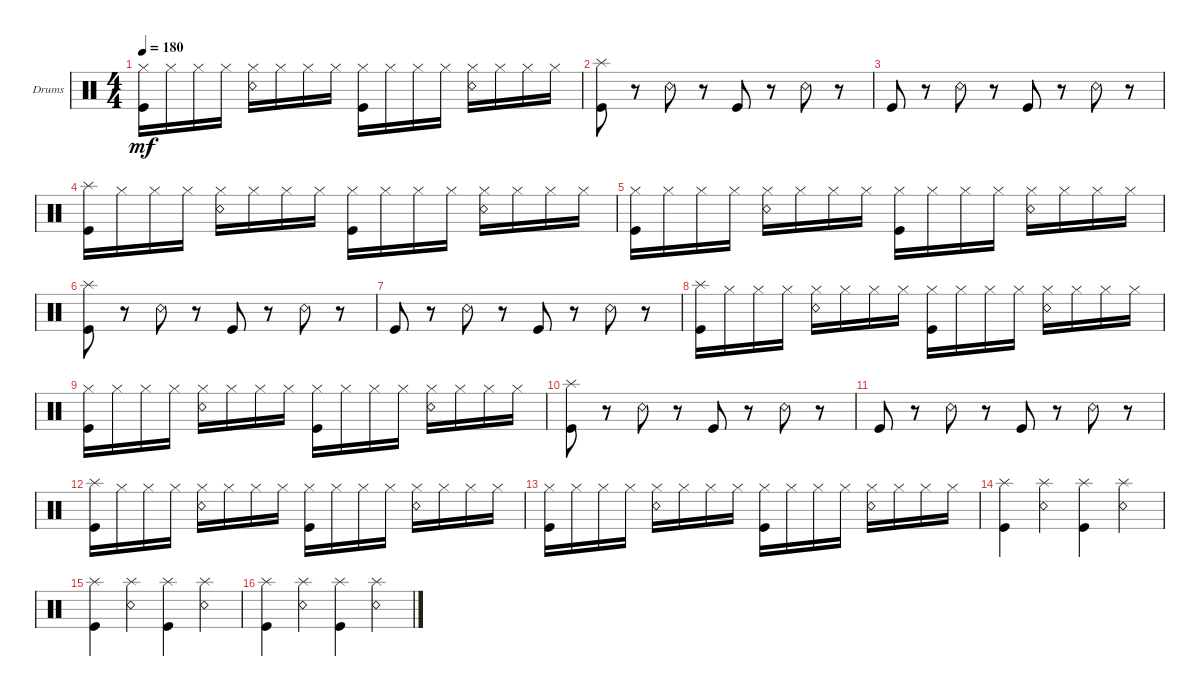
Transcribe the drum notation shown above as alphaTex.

\defaultSystemsLayout 4
\bracketExtendMode groupsimilarinstruments
\firstSystemTrackNameOrientation horizontal
\otherSystemsTrackNameOrientation horizontal
\track ("Drumkit" "Drums") {instrument percussion}
\staff {score}
\articulation defaults
\ts (4 4)
\tempo 180
\clef neutral
\scale
0.333333
\ks c
("Kick (hit)" "Hi-Hat (closed)").16{dy mf} "Hi-Hat (closed)".16 "Hi-Hat (closed)".16 "Hi-Hat (closed)".16 ("Hi-Hat (closed)" "Snare (rim shot)").16 "Hi-Hat (closed)".16 "Hi-Hat (closed)".16 "Hi-Hat (closed)".16 ("Hi-Hat (closed)" "Kick (hit)").16 "Hi-Hat (closed)".16 "Hi-Hat (closed)".16 "Hi-Hat (closed)".16 ("Hi-Hat (closed)" "Snare (rim shot)").16 "Hi-Hat (closed)".16 "Hi-Hat (closed)".16 "Hi-Hat (closed)".16 |
\scale
0.333333 ("Kick (hit)" "Splash (hit)").8 r.8 "Snare (rim shot)".8 r.8 "Kick (hit)".8 r.8 "Snare (rim shot)".8 r.8 |
\scale
0.333333 "Kick (hit)".8 r.8 "Snare (rim shot)".8 r.8 "Kick (hit)".8 r.8 "Snare (rim shot)".8 r.8 |
\scale
0.333333 ("Kick (hit)" "Splash (hit)").16 "Hi-Hat (closed)".16 "Hi-Hat (closed)".16 "Hi-Hat (closed)".16 ("Hi-Hat (closed)" "Snare (rim shot)").16 "Hi-Hat (closed)".16 "Hi-Hat (closed)".16 "Hi-Hat (closed)".16 ("Hi-Hat (closed)" "Kick (hit)").16 "Hi-Hat (closed)".16 "Hi-Hat (closed)".16 "Hi-Hat (closed)".16 ("Hi-Hat (closed)" "Snare (rim shot)").16 "Hi-Hat (closed)".16 "Hi-Hat (closed)".16 "Hi-Hat (closed)".16 |
\scale
0.333333 ("Kick (hit)" "Hi-Hat (closed)").16 "Hi-Hat (closed)".16 "Hi-Hat (closed)".16 "Hi-Hat (closed)".16 ("Hi-Hat (closed)" "Snare (rim shot)").16 "Hi-Hat (closed)".16 "Hi-Hat (closed)".16 "Hi-Hat (closed)".16 ("Hi-Hat (closed)" "Kick (hit)").16 "Hi-Hat (closed)".16 "Hi-Hat (closed)".16 "Hi-Hat (closed)".16 ("Hi-Hat (closed)" "Snare (rim shot)").16 "Hi-Hat (closed)".16 "Hi-Hat (closed)".16 "Hi-Hat (closed)".16 |
\scale
0.333333 ("Kick (hit)" "Splash (hit)").8 r.8 "Snare (rim shot)".8 r.8 "Kick (hit)".8 r.8 "Snare (rim shot)".8 r.8 |
\scale
0.333333 "Kick (hit)".8 r.8 "Snare (rim shot)".8 r.8 "Kick (hit)".8 r.8 "Snare (rim shot)".8 r.8 |
\scale
0.333333 ("Kick (hit)" "Splash (hit)").16 "Hi-Hat (closed)".16 "Hi-Hat (closed)".16 "Hi-Hat (closed)".16 ("Hi-Hat (closed)" "Snare (rim shot)").16 "Hi-Hat (closed)".16 "Hi-Hat (closed)".16 "Hi-Hat (closed)".16 ("Hi-Hat (closed)" "Kick (hit)").16 "Hi-Hat (closed)".16 "Hi-Hat (closed)".16 "Hi-Hat (closed)".16 ("Hi-Hat (closed)" "Snare (rim shot)").16 "Hi-Hat (closed)".16 "Hi-Hat (closed)".16 "Hi-Hat (closed)".16 |
\scale
0.333333 ("Kick (hit)" "Hi-Hat (closed)").16 "Hi-Hat (closed)".16 "Hi-Hat (closed)".16 "Hi-Hat (closed)".16 ("Hi-Hat (closed)" "Snare (rim shot)").16 "Hi-Hat (closed)".16 "Hi-Hat (closed)".16 "Hi-Hat (closed)".16 ("Hi-Hat (closed)" "Kick (hit)").16 "Hi-Hat (closed)".16 "Hi-Hat (closed)".16 "Hi-Hat (closed)".16 ("Hi-Hat (closed)" "Snare (rim shot)").16 "Hi-Hat (closed)".16 "Hi-Hat (closed)".16 "Hi-Hat (closed)".16 |
\scale
0.333333 ("Kick (hit)" "Splash (hit)").8 r.8 "Snare (rim shot)".8 r.8 "Kick (hit)".8 r.8 "Snare (rim shot)".8 r.8 |
\scale
0.333333 "Kick (hit)".8 r.8 "Snare (rim shot)".8 r.8 "Kick (hit)".8 r.8 "Snare (rim shot)".8 r.8 |
\scale
0.333333 ("Kick (hit)" "Splash (hit)").16 "Hi-Hat (closed)".16 "Hi-Hat (closed)".16 "Hi-Hat (closed)".16 ("Hi-Hat (closed)" "Snare (rim shot)").16 "Hi-Hat (closed)".16 "Hi-Hat (closed)".16 "Hi-Hat (closed)".16 ("Hi-Hat (closed)" "Kick (hit)").16 "Hi-Hat (closed)".16 "Hi-Hat (closed)".16 "Hi-Hat (closed)".16 ("Hi-Hat (closed)" "Snare (rim shot)").16 "Hi-Hat (closed)".16 "Hi-Hat (closed)".16 "Hi-Hat (closed)".16 |
\scale
0.333333 ("Kick (hit)" "Hi-Hat (closed)").16 "Hi-Hat (closed)".16 "Hi-Hat (closed)".16 "Hi-Hat (closed)".16 ("Hi-Hat (closed)" "Snare (rim shot)").16 "Hi-Hat (closed)".16 "Hi-Hat (closed)".16 "Hi-Hat (closed)".16 ("Hi-Hat (closed)" "Kick (hit)").16 "Hi-Hat (closed)".16 "Hi-Hat (closed)".16 "Hi-Hat (closed)".16 ("Hi-Hat (closed)" "Snare (rim shot)").16 "Hi-Hat (closed)".16 "Hi-Hat (closed)".16 "Hi-Hat (closed)".16 |
\scale
0.333333 ("Kick (hit)" "Splash (hit)").4 ("Snare (rim shot)" "Splash (hit)").4 ("Kick (hit)" "Splash (hit)").4 ("Snare (rim shot)" "Splash (hit)").4 |
\scale
0.333333 ("Kick (hit)" "Splash (hit)").4 ("Snare (rim shot)" "Splash (hit)").4 ("Kick (hit)" "Splash (hit)").4 ("Snare (rim shot)" "Splash (hit)").4 |
\scale
0.333333 ("Kick (hit)" "Splash (hit)").4 ("Snare (rim shot)" "Splash (hit)").4 ("Kick (hit)" "Splash (hit)").4 ("Snare (rim shot)" "Splash (hit)").4
